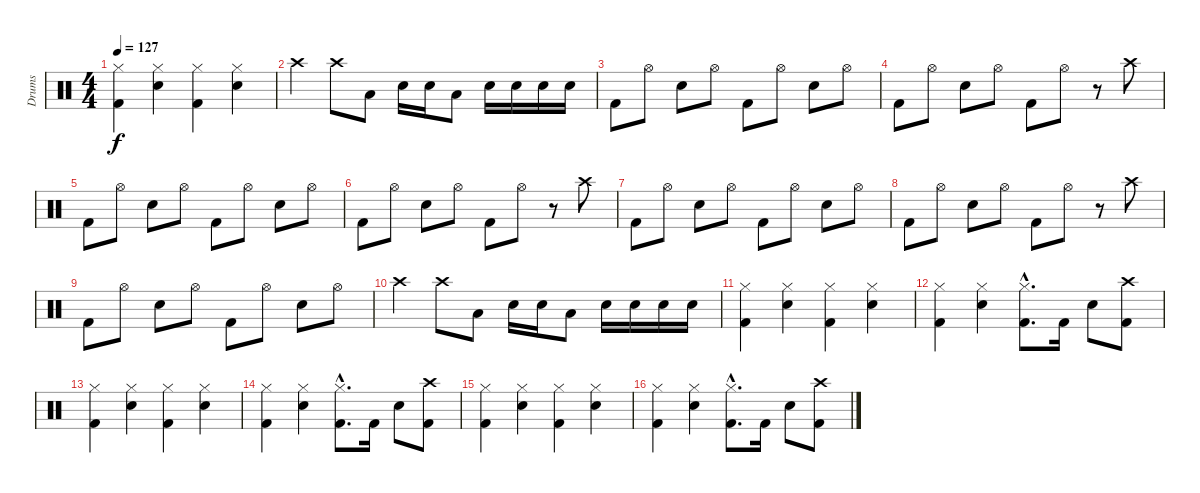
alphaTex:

\track ("Drums" "Drums") {instrument percussion}
\staff {score}
\articulation defaults
\ts (4 4)
\tempo 127
\clef neutral
\ks c
("Hi-Hat (closed)" "Kick (hit) 2").4{dy f} ("Hi-Hat (closed)" "Snare (hit) 2").4 ("Hi-Hat (closed)" "Kick (hit) 2").4 ("Hi-Hat (closed)" "Snare (hit) 2").4 |
"Crash high (hit)".4 "Crash high (hit)".8 "Low Tom (hit)".8 "Snare (hit) 2".16 "Snare (hit) 2".16 "Low Tom (hit)".8 "Snare (hit) 2".16 "Snare (hit) 2".16 "Snare (hit) 2".16 "Snare (hit) 2".16 |
"Kick (hit) 2".8 "Hi-Hat (open)".8 "Snare (hit) 2".8 "Hi-Hat (open)".8 "Kick (hit) 2".8 "Hi-Hat (open)".8 "Snare (hit) 2".8 "Hi-Hat (open)".8 |
"Kick (hit) 2".8 "Hi-Hat (open)".8 "Snare (hit) 2".8 "Hi-Hat (open)".8 "Kick (hit) 2".8 "Hi-Hat (open)".8 r.8 "Crash high (hit)".8 |
"Kick (hit) 2".8 "Hi-Hat (open)".8 "Snare (hit) 2".8 "Hi-Hat (open)".8 "Kick (hit) 2".8 "Hi-Hat (open)".8 "Snare (hit) 2".8 "Hi-Hat (open)".8 |
"Kick (hit) 2".8 "Hi-Hat (open)".8 "Snare (hit) 2".8 "Hi-Hat (open)".8 "Kick (hit) 2".8 "Hi-Hat (open)".8 r.8 "Crash high (hit)".8 |
"Kick (hit) 2".8 "Hi-Hat (open)".8 "Snare (hit) 2".8 "Hi-Hat (open)".8 "Kick (hit) 2".8 "Hi-Hat (open)".8 "Snare (hit) 2".8 "Hi-Hat (open)".8 |
"Kick (hit) 2".8 "Hi-Hat (open)".8 "Snare (hit) 2".8 "Hi-Hat (open)".8 "Kick (hit) 2".8 "Hi-Hat (open)".8 r.8 "Crash high (hit)".8 |
"Kick (hit) 2".8 "Hi-Hat (open)".8 "Snare (hit) 2".8 "Hi-Hat (open)".8 "Kick (hit) 2".8 "Hi-Hat (open)".8 "Snare (hit) 2".8 "Hi-Hat (open)".8 |
"Crash high (hit)".4 "Crash high (hit)".8 "Low Tom (hit)".8 "Snare (hit) 2".16 "Snare (hit) 2".16 "Low Tom (hit)".8 "Snare (hit) 2".16 "Snare (hit) 2".16 "Snare (hit) 2".16 "Snare (hit) 2".16 |
("Hi-Hat (closed)" "Kick (hit) 2").4 ("Hi-Hat (closed)" "Snare (hit) 2").4 ("Hi-Hat (closed)" "Kick (hit) 2").4 ("Hi-Hat (closed)" "Snare (hit) 2").4 |
("Hi-Hat (closed)" "Kick (hit) 2").4 ("Hi-Hat (closed)" "Snare (hit) 2").4 ("Hi-Hat (closed)" "Kick (hit) 2"{hac}).8{d} "Kick (hit) 2".16 "Snare (hit) 2".8 ("Crash high (hit)" "Kick (hit) 2").8 |
("Hi-Hat (closed)" "Kick (hit) 2").4 ("Hi-Hat (closed)" "Snare (hit) 2").4 ("Hi-Hat (closed)" "Kick (hit) 2").4 ("Hi-Hat (closed)" "Snare (hit) 2").4 |
("Hi-Hat (closed)" "Kick (hit) 2").4 ("Hi-Hat (closed)" "Snare (hit) 2").4 ("Hi-Hat (closed)" "Kick (hit) 2"{hac}).8{d} "Kick (hit) 2".16 "Snare (hit) 2".8 ("Crash high (hit)" "Kick (hit) 2").8 |
("Hi-Hat (closed)" "Kick (hit) 2").4 ("Hi-Hat (closed)" "Snare (hit) 2").4 ("Hi-Hat (closed)" "Kick (hit) 2").4 ("Hi-Hat (closed)" "Snare (hit) 2").4 |
("Hi-Hat (closed)" "Kick (hit) 2").4 ("Hi-Hat (closed)" "Snare (hit) 2").4 ("Hi-Hat (closed)" "Kick (hit) 2"{hac}).8{d} "Kick (hit) 2".16 "Snare (hit) 2".8 ("Crash high (hit)" "Kick (hit) 2").8
